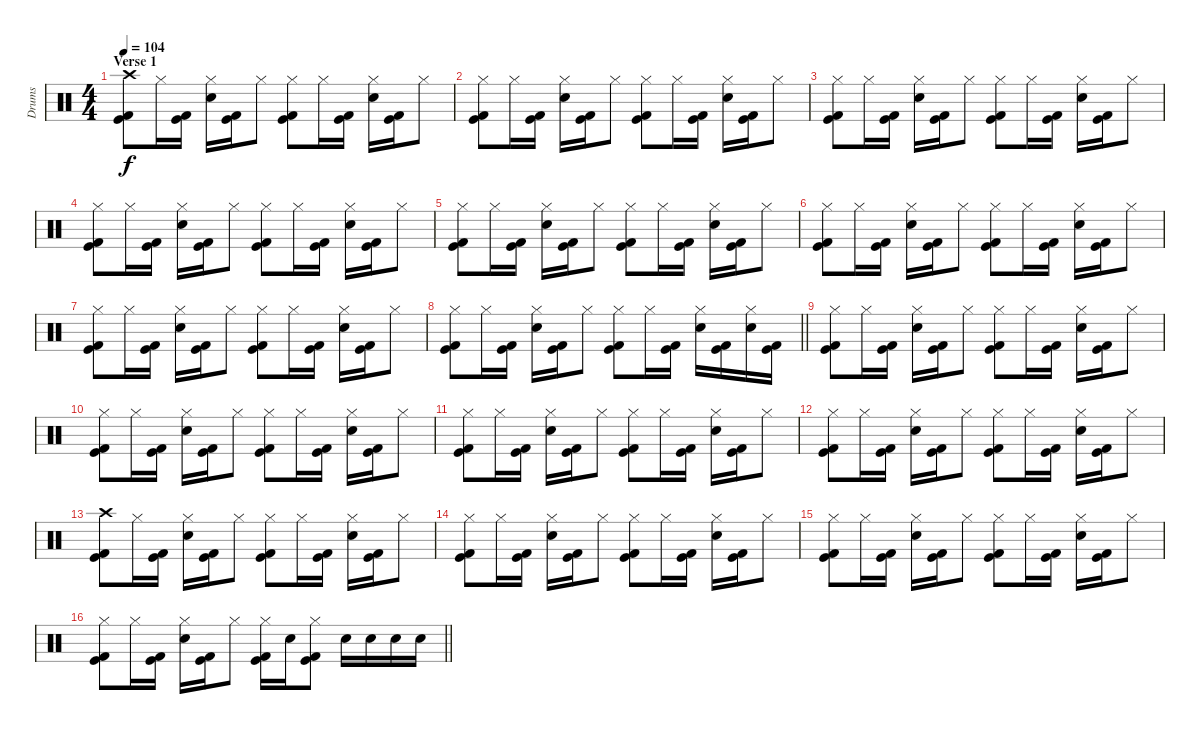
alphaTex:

\track ("Drums" "Drums") {instrument percussion}
\staff {score}
\articulation defaults
\ts (4 4)
\section ("" "Verse 1")
\tempo 104
\clef neutral
\ks c
("Crash high (hit)" "Kick (hit)" "Kick (hit) 2").8{dy f} "Hi-Hat (closed)".16 ("Kick (hit)" "Kick (hit) 2").16 ("Hi-Hat (closed)" "Electric Snare (hit)").16 ("Kick (hit)" "Kick (hit) 2").16 "Hi-Hat (closed)".8 ("Hi-Hat (closed)" "Kick (hit)" "Kick (hit) 2").8 "Hi-Hat (closed)".16 ("Kick (hit)" "Kick (hit) 2").16 ("Hi-Hat (closed)" "Electric Snare (hit)").16 ("Kick (hit)" "Kick (hit) 2").16 "Hi-Hat (closed)".8 |
("Hi-Hat (closed)" "Kick (hit)" "Kick (hit) 2").8 "Hi-Hat (closed)".16 ("Kick (hit)" "Kick (hit) 2").16 ("Hi-Hat (closed)" "Electric Snare (hit)").16 ("Kick (hit)" "Kick (hit) 2").16 "Hi-Hat (closed)".8 ("Hi-Hat (closed)" "Kick (hit)" "Kick (hit) 2").8 "Hi-Hat (closed)".16 ("Kick (hit)" "Kick (hit) 2").16 ("Hi-Hat (closed)" "Electric Snare (hit)").16 ("Kick (hit)" "Kick (hit) 2").16 "Hi-Hat (closed)".8 |
("Hi-Hat (closed)" "Kick (hit)" "Kick (hit) 2").8 "Hi-Hat (closed)".16 ("Kick (hit)" "Kick (hit) 2").16 ("Hi-Hat (closed)" "Electric Snare (hit)").16 ("Kick (hit)" "Kick (hit) 2").16 "Hi-Hat (closed)".8 ("Hi-Hat (closed)" "Kick (hit)" "Kick (hit) 2").8 "Hi-Hat (closed)".16 ("Kick (hit)" "Kick (hit) 2").16 ("Hi-Hat (closed)" "Electric Snare (hit)").16 ("Kick (hit)" "Kick (hit) 2").16 "Hi-Hat (closed)".8 |
("Hi-Hat (closed)" "Kick (hit)" "Kick (hit) 2").8 "Hi-Hat (closed)".16 ("Kick (hit)" "Kick (hit) 2").16 ("Hi-Hat (closed)" "Electric Snare (hit)").16 ("Kick (hit)" "Kick (hit) 2").16 "Hi-Hat (closed)".8 ("Hi-Hat (closed)" "Kick (hit)" "Kick (hit) 2").8 "Hi-Hat (closed)".16 ("Kick (hit)" "Kick (hit) 2").16 ("Hi-Hat (closed)" "Electric Snare (hit)").16 ("Kick (hit)" "Kick (hit) 2").16 "Hi-Hat (closed)".8 |
("Hi-Hat (closed)" "Kick (hit)" "Kick (hit) 2").8 "Hi-Hat (closed)".16 ("Kick (hit)" "Kick (hit) 2").16 ("Hi-Hat (closed)" "Electric Snare (hit)").16 ("Kick (hit)" "Kick (hit) 2").16 "Hi-Hat (closed)".8 ("Hi-Hat (closed)" "Kick (hit)" "Kick (hit) 2").8 "Hi-Hat (closed)".16 ("Kick (hit)" "Kick (hit) 2").16 ("Hi-Hat (closed)" "Electric Snare (hit)").16 ("Kick (hit)" "Kick (hit) 2").16 "Hi-Hat (closed)".8 |
("Hi-Hat (closed)" "Kick (hit)" "Kick (hit) 2").8 "Hi-Hat (closed)".16 ("Kick (hit)" "Kick (hit) 2").16 ("Hi-Hat (closed)" "Electric Snare (hit)").16 ("Kick (hit)" "Kick (hit) 2").16 "Hi-Hat (closed)".8 ("Hi-Hat (closed)" "Kick (hit)" "Kick (hit) 2").8 "Hi-Hat (closed)".16 ("Kick (hit)" "Kick (hit) 2").16 ("Hi-Hat (closed)" "Electric Snare (hit)").16 ("Kick (hit)" "Kick (hit) 2").16 "Hi-Hat (closed)".8 |
("Hi-Hat (closed)" "Kick (hit)" "Kick (hit) 2").8 "Hi-Hat (closed)".16 ("Kick (hit)" "Kick (hit) 2").16 ("Hi-Hat (closed)" "Electric Snare (hit)").16 ("Kick (hit)" "Kick (hit) 2").16 "Hi-Hat (closed)".8 ("Hi-Hat (closed)" "Kick (hit)" "Kick (hit) 2").8 "Hi-Hat (closed)".16 ("Kick (hit)" "Kick (hit) 2").16 ("Hi-Hat (closed)" "Electric Snare (hit)").16 ("Kick (hit)" "Kick (hit) 2").16 "Hi-Hat (closed)".8 |
\barLineRight lightlight
("Hi-Hat (closed)" "Kick (hit)" "Kick (hit) 2").8 "Hi-Hat (closed)".16 ("Kick (hit)" "Kick (hit) 2").16 ("Hi-Hat (closed)" "Electric Snare (hit)").16 ("Kick (hit)" "Kick (hit) 2").16 "Hi-Hat (closed)".8 ("Hi-Hat (closed)" "Kick (hit)" "Kick (hit) 2").8 "Hi-Hat (closed)".16 ("Kick (hit)" "Kick (hit) 2").16 ("Hi-Hat (closed)" "Electric Snare (hit)").16 ("Kick (hit)" "Kick (hit) 2").16 ("Hi-Hat (closed)" "Electric Snare (hit)").16 ("Kick (hit)" "Kick (hit) 2").16 |
("Hi-Hat (closed)" "Kick (hit)" "Kick (hit) 2").8 "Hi-Hat (closed)".16 ("Kick (hit)" "Kick (hit) 2").16 ("Hi-Hat (closed)" "Electric Snare (hit)").16 ("Kick (hit)" "Kick (hit) 2").16 "Hi-Hat (closed)".8 ("Hi-Hat (closed)" "Kick (hit)" "Kick (hit) 2").8 "Hi-Hat (closed)".16 ("Kick (hit)" "Kick (hit) 2").16 ("Hi-Hat (closed)" "Electric Snare (hit)").16 ("Kick (hit)" "Kick (hit) 2").16 "Hi-Hat (closed)".8 |
("Hi-Hat (closed)" "Kick (hit)" "Kick (hit) 2").8 "Hi-Hat (closed)".16 ("Kick (hit)" "Kick (hit) 2").16 ("Hi-Hat (closed)" "Electric Snare (hit)").16 ("Kick (hit)" "Kick (hit) 2").16 "Hi-Hat (closed)".8 ("Hi-Hat (closed)" "Kick (hit)" "Kick (hit) 2").8 "Hi-Hat (closed)".16 ("Kick (hit)" "Kick (hit) 2").16 ("Hi-Hat (closed)" "Electric Snare (hit)").16 ("Kick (hit)" "Kick (hit) 2").16 "Hi-Hat (closed)".8 |
("Hi-Hat (closed)" "Kick (hit)" "Kick (hit) 2").8 "Hi-Hat (closed)".16 ("Kick (hit)" "Kick (hit) 2").16 ("Hi-Hat (closed)" "Electric Snare (hit)").16 ("Kick (hit)" "Kick (hit) 2").16 "Hi-Hat (closed)".8 ("Hi-Hat (closed)" "Kick (hit)" "Kick (hit) 2").8 "Hi-Hat (closed)".16 ("Kick (hit)" "Kick (hit) 2").16 ("Hi-Hat (closed)" "Electric Snare (hit)").16 ("Kick (hit)" "Kick (hit) 2").16 "Hi-Hat (closed)".8 |
("Hi-Hat (closed)" "Kick (hit)" "Kick (hit) 2").8 "Hi-Hat (closed)".16 ("Kick (hit)" "Kick (hit) 2").16 ("Hi-Hat (closed)" "Electric Snare (hit)").16 ("Kick (hit)" "Kick (hit) 2").16 "Hi-Hat (closed)".8 ("Hi-Hat (closed)" "Kick (hit)" "Kick (hit) 2").8 "Hi-Hat (closed)".16 ("Kick (hit)" "Kick (hit) 2").16 ("Hi-Hat (closed)" "Electric Snare (hit)").16 ("Kick (hit)" "Kick (hit) 2").16 "Hi-Hat (closed)".8 |
("Crash high (hit)" "Kick (hit)" "Kick (hit) 2").8 "Hi-Hat (closed)".16 ("Kick (hit)" "Kick (hit) 2").16 ("Hi-Hat (closed)" "Electric Snare (hit)").16 ("Kick (hit)" "Kick (hit) 2").16 "Hi-Hat (closed)".8 ("Hi-Hat (closed)" "Kick (hit)" "Kick (hit) 2").8 "Hi-Hat (closed)".16 ("Kick (hit)" "Kick (hit) 2").16 ("Hi-Hat (closed)" "Electric Snare (hit)").16 ("Kick (hit)" "Kick (hit) 2").16 "Hi-Hat (closed)".8 |
("Hi-Hat (closed)" "Kick (hit)" "Kick (hit) 2").8 "Hi-Hat (closed)".16 ("Kick (hit)" "Kick (hit) 2").16 ("Hi-Hat (closed)" "Electric Snare (hit)").16 ("Kick (hit)" "Kick (hit) 2").16 "Hi-Hat (closed)".8 ("Hi-Hat (closed)" "Kick (hit)" "Kick (hit) 2").8 "Hi-Hat (closed)".16 ("Kick (hit)" "Kick (hit) 2").16 ("Hi-Hat (closed)" "Electric Snare (hit)").16 ("Kick (hit)" "Kick (hit) 2").16 "Hi-Hat (closed)".8 |
("Hi-Hat (closed)" "Kick (hit)" "Kick (hit) 2").8 "Hi-Hat (closed)".16 ("Kick (hit)" "Kick (hit) 2").16 ("Hi-Hat (closed)" "Electric Snare (hit)").16 ("Kick (hit)" "Kick (hit) 2").16 "Hi-Hat (closed)".8 ("Hi-Hat (closed)" "Kick (hit)" "Kick (hit) 2").8 "Hi-Hat (closed)".16 ("Kick (hit)" "Kick (hit) 2").16 ("Hi-Hat (closed)" "Electric Snare (hit)").16 ("Kick (hit)" "Kick (hit) 2").16 "Hi-Hat (closed)".8 |
\barLineRight lightlight
("Hi-Hat (closed)" "Kick (hit)" "Kick (hit) 2").8 "Hi-Hat (closed)".16 ("Kick (hit)" "Kick (hit) 2").16 ("Hi-Hat (closed)" "Electric Snare (hit)").16 ("Kick (hit)" "Kick (hit) 2").16 "Hi-Hat (closed)".8 ("Hi-Hat (closed)" "Kick (hit)" "Kick (hit) 2").16 "Electric Snare (hit)".16 ("Hi-Hat (closed)" "Kick (hit)" "Kick (hit) 2").8 "Electric Snare (hit)".16 "Electric Snare (hit)".16 "Electric Snare (hit)".16 "Electric Snare (hit)".16
